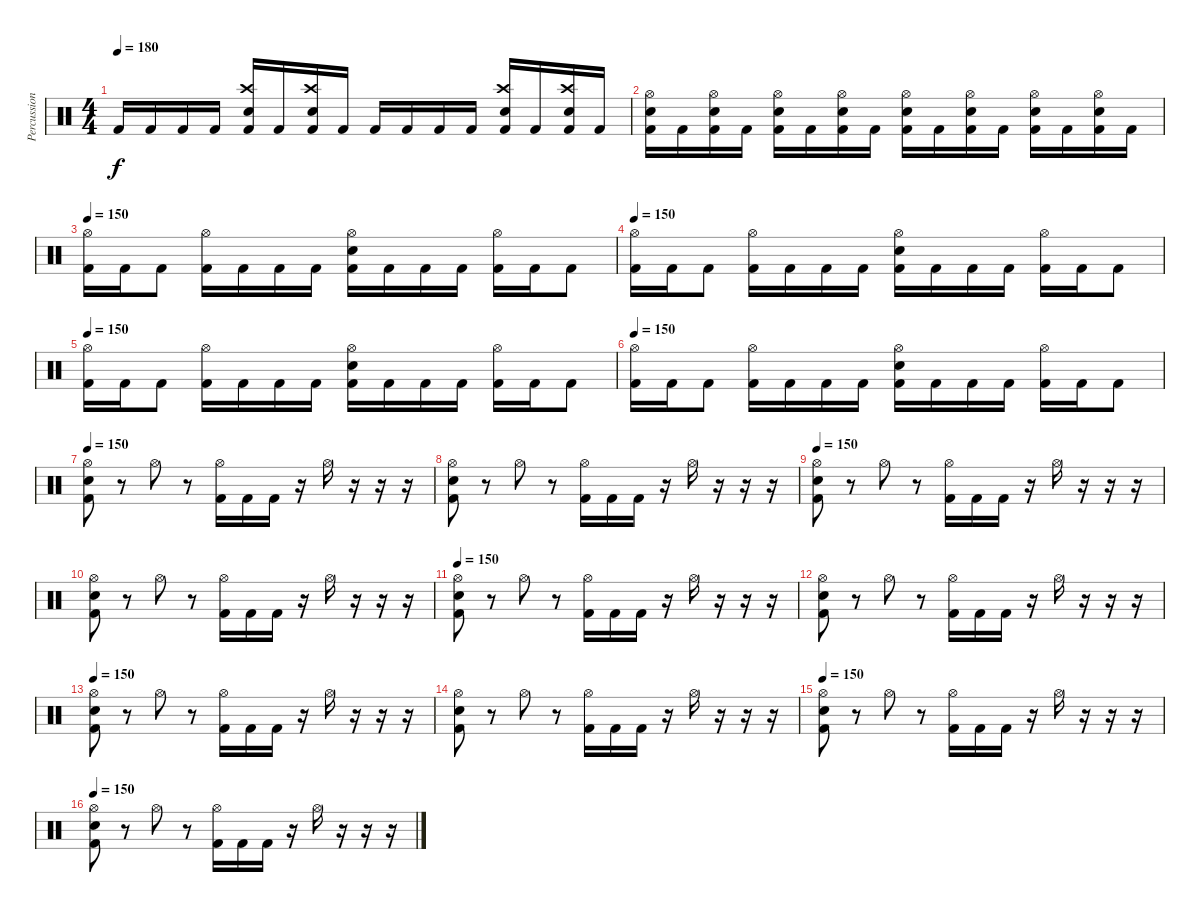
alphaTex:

\track ("Percussion" "Percussion") {instrument percussion}
\staff {score}
\articulation defaults
\ts (4 4)
\tempo 180
\clef neutral
\ks c "Kick (hit) 2".16{dy f} "Kick (hit) 2".16 "Kick (hit) 2".16 "Kick (hit) 2".16
("Crash high (hit)" "Snare (hit) 2" "Kick (hit) 2").16 "Kick (hit) 2".16 ("Crash high (hit)" "Snare (hit) 2" "Kick (hit) 2").16 "Kick (hit) 2".16 "Kick (hit) 2".16 "Kick (hit) 2".16 "Kick (hit) 2".16 "Kick (hit) 2".16 ("Crash high (hit)" "Snare (hit) 2" "Kick (hit) 2").16 "Kick (hit) 2".16 ("Crash high (hit)" "Snare (hit) 2" "Kick (hit) 2").16 "Kick (hit) 2".16 |
("Hi-Hat (open)" "Snare (hit) 2" "Kick (hit) 2").16 "Kick (hit) 2".16 ("Hi-Hat (open)" "Snare (hit) 2" "Kick (hit) 2").16 "Kick (hit) 2".16 ("Hi-Hat (open)" "Snare (hit) 2" "Kick (hit) 2").16 "Kick (hit) 2".16 ("Hi-Hat (open)" "Snare (hit) 2" "Kick (hit) 2").16 "Kick (hit) 2".16 ("Hi-Hat (open)" "Snare (hit) 2" "Kick (hit) 2").16 "Kick (hit) 2".16 ("Hi-Hat (open)" "Snare (hit) 2" "Kick (hit) 2").16 "Kick (hit) 2".16 ("Hi-Hat (open)" "Snare (hit) 2" "Kick (hit) 2").16 "Kick (hit) 2".16 ("Hi-Hat (open)" "Snare (hit) 2" "Kick (hit) 2").16 "Kick (hit) 2".16 |
\tempo 120
\tempo 150
("Hi-Hat (open)" "Kick (hit) 2").16 "Kick (hit) 2".16 "Kick (hit) 2".8 ("Hi-Hat (open)" "Kick (hit) 2").16 "Kick (hit) 2".16 "Kick (hit) 2".16 "Kick (hit) 2".16 ("Hi-Hat (open)" "Snare (hit) 2" "Kick (hit) 2").16 "Kick (hit) 2".16 "Kick (hit) 2".16 "Kick (hit) 2".16 ("Hi-Hat (open)" "Kick (hit) 2").16 "Kick (hit) 2".16 "Kick (hit) 2".8 |
\tempo 150
("Hi-Hat (open)" "Kick (hit) 2").16 "Kick (hit) 2".16 "Kick (hit) 2".8 ("Hi-Hat (open)" "Kick (hit) 2").16 "Kick (hit) 2".16 "Kick (hit) 2".16 "Kick (hit) 2".16 ("Hi-Hat (open)" "Snare (hit) 2" "Kick (hit) 2").16 "Kick (hit) 2".16 "Kick (hit) 2".16 "Kick (hit) 2".16 ("Hi-Hat (open)" "Kick (hit) 2").16 "Kick (hit) 2".16 "Kick (hit) 2".8 |
\tempo 120
\tempo 150
("Hi-Hat (open)" "Kick (hit) 2").16 "Kick (hit) 2".16 "Kick (hit) 2".8 ("Hi-Hat (open)" "Kick (hit) 2").16 "Kick (hit) 2".16 "Kick (hit) 2".16 "Kick (hit) 2".16 ("Hi-Hat (open)" "Snare (hit) 2" "Kick (hit) 2").16 "Kick (hit) 2".16 "Kick (hit) 2".16 "Kick (hit) 2".16 ("Hi-Hat (open)" "Kick (hit) 2").16 "Kick (hit) 2".16 "Kick (hit) 2".8 |
\tempo 150
("Hi-Hat (open)" "Kick (hit) 2").16 "Kick (hit) 2".16 "Kick (hit) 2".8 ("Hi-Hat (open)" "Kick (hit) 2").16 "Kick (hit) 2".16 "Kick (hit) 2".16 "Kick (hit) 2".16 ("Hi-Hat (open)" "Snare (hit) 2" "Kick (hit) 2").16 "Kick (hit) 2".16 "Kick (hit) 2".16 "Kick (hit) 2".16 ("Hi-Hat (open)" "Kick (hit) 2").16 "Kick (hit) 2".16 "Kick (hit) 2".8 |
\tempo 150
("Hi-Hat (open)" "Snare (hit) 2" "Kick (hit) 2").8 r.8 "Hi-Hat (open)".8 r.8 ("Hi-Hat (open)" "Kick (hit) 2").16 "Kick (hit) 2".16 "Kick (hit) 2".16 r.16 "Hi-Hat (open)".16 r.16 r.16 r.16 |
("Hi-Hat (open)" "Snare (hit) 2" "Kick (hit) 2").8 r.8 "Hi-Hat (open)".8 r.8 ("Hi-Hat (open)" "Kick (hit) 2").16 "Kick (hit) 2".16 "Kick (hit) 2".16 r.16 "Hi-Hat (open)".16 r.16 r.16 r.16 |
\tempo 150
("Hi-Hat (open)" "Snare (hit) 2" "Kick (hit) 2").8 r.8 "Hi-Hat (open)".8 r.8 ("Hi-Hat (open)" "Kick (hit) 2").16 "Kick (hit) 2".16 "Kick (hit) 2".16 r.16 "Hi-Hat (open)".16 r.16 r.16 r.16 |
("Hi-Hat (open)" "Snare (hit) 2" "Kick (hit) 2").8 r.8 "Hi-Hat (open)".8 r.8 ("Hi-Hat (open)" "Kick (hit) 2").16 "Kick (hit) 2".16 "Kick (hit) 2".16 r.16 "Hi-Hat (open)".16 r.16 r.16 r.16 |
\tempo 150
("Hi-Hat (open)" "Snare (hit) 2" "Kick (hit) 2").8 r.8 "Hi-Hat (open)".8 r.8 ("Hi-Hat (open)" "Kick (hit) 2").16 "Kick (hit) 2".16 "Kick (hit) 2".16 r.16 "Hi-Hat (open)".16 r.16 r.16 r.16 |
("Hi-Hat (open)" "Snare (hit) 2" "Kick (hit) 2").8 r.8 "Hi-Hat (open)".8 r.8 ("Hi-Hat (open)" "Kick (hit) 2").16 "Kick (hit) 2".16 "Kick (hit) 2".16 r.16 "Hi-Hat (open)".16 r.16 r.16 r.16 |
\tempo 150
("Hi-Hat (open)" "Snare (hit) 2" "Kick (hit) 2").8 r.8 "Hi-Hat (open)".8 r.8 ("Hi-Hat (open)" "Kick (hit) 2").16 "Kick (hit) 2".16 "Kick (hit) 2".16 r.16 "Hi-Hat (open)".16 r.16 r.16 r.16 |
("Hi-Hat (open)" "Snare (hit) 2" "Kick (hit) 2").8 r.8 "Hi-Hat (open)".8 r.8 ("Hi-Hat (open)" "Kick (hit) 2").16 "Kick (hit) 2".16 "Kick (hit) 2".16 r.16 "Hi-Hat (open)".16 r.16 r.16 r.16 |
\tempo 150
("Hi-Hat (open)" "Snare (hit) 2" "Kick (hit) 2").8 r.8 "Hi-Hat (open)".8 r.8 ("Hi-Hat (open)" "Kick (hit) 2").16 "Kick (hit) 2".16 "Kick (hit) 2".16 r.16 "Hi-Hat (open)".16 r.16 r.16 r.16 |
\tempo 150
("Hi-Hat (open)" "Snare (hit) 2" "Kick (hit) 2").8 r.8 "Hi-Hat (open)".8 r.8 ("Hi-Hat (open)" "Kick (hit) 2").16 "Kick (hit) 2".16 "Kick (hit) 2".16 r.16 "Hi-Hat (open)".16 r.16 r.16 r.16
